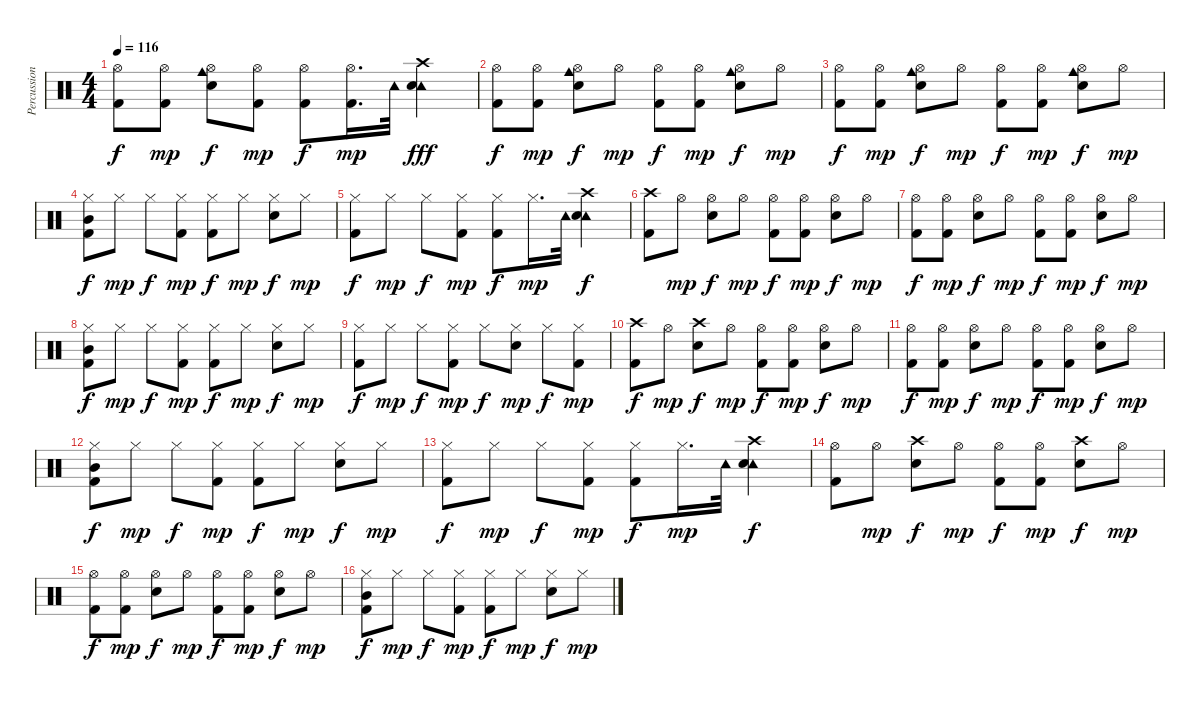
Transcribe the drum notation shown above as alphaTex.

\track ("Percussion (Peter)" "Percussion") {instrument percussion}
\staff {score}
\articulation defaults
\ts (4 4)
\tempo 116
\clef neutral
\ks c
("Hi-Hat (open)" "Kick (hit) 2").8{dy f} ("Hi-Hat (open)" "Kick (hit) 2").8{dy mp} ("Cowbell medium (hit)" "Hi-Hat (open)" "Snare (hit) 2").8{dy f} ("Hi-Hat (open)" "Kick (hit) 2").8{dy mp} ("Hi-Hat (open)" "Kick (hit) 2").8{dy f} ("Hi-Hat (open)" "Kick (hit) 2").16{d dy mp} "Tambourine (hit)".32 ("Crash high (hit)" "Tambourine (hit)" "Snare (hit) 2").4{dy fff} |
("Hi-Hat (open)" "Kick (hit) 2").8{dy f} ("Hi-Hat (open)" "Kick (hit) 2").8{dy mp} ("Cowbell medium (hit)" "Hi-Hat (open)" "Snare (hit) 2").8{dy f} "Hi-Hat (open)".8{dy mp} ("Hi-Hat (open)" "Kick (hit) 2").8{dy f} ("Hi-Hat (open)" "Kick (hit) 2").8{dy mp} ("Cowbell medium (hit)" "Hi-Hat (open)" "Snare (hit) 2").8{dy f} "Hi-Hat (open)".8{dy mp} |
("Hi-Hat (open)" "Kick (hit) 2").8{dy f} ("Hi-Hat (open)" "Kick (hit) 2").8{dy mp} ("Cowbell medium (hit)" "Hi-Hat (open)" "Snare (hit) 2").8{dy f} "Hi-Hat (open)".8{dy mp} ("Hi-Hat (open)" "Kick (hit) 2").8{dy f} ("Hi-Hat (open)" "Kick (hit) 2").8{dy mp} ("Cowbell medium (hit)" "Hi-Hat (open)" "Snare (hit) 2").8{dy f} "Hi-Hat (open)".8{dy mp} |
("Hi-Hat (closed)" "Mid Tom (hit)" "Kick (hit) 2").8{dy f} "Hi-Hat (closed)".8{dy mp} "Hi-Hat (closed)".8{dy f} ("Hi-Hat (closed)" "Kick (hit) 2").8{dy mp} ("Hi-Hat (closed)" "Kick (hit) 2").8{dy f} "Hi-Hat (closed)".8{dy mp} ("Hi-Hat (closed)" "Snare (hit) 2").8{dy f} "Hi-Hat (closed)".8{dy mp} |
("Hi-Hat (closed)" "Kick (hit) 2").8{dy f} "Hi-Hat (closed)".8{dy mp} "Hi-Hat (closed)".8{dy f} ("Hi-Hat (closed)" "Kick (hit) 2").8{dy mp} ("Hi-Hat (closed)" "Kick (hit) 2").8{dy f} "Hi-Hat (closed)".16{d dy mp} "Tambourine (hit)".32 ("Crash high (hit)" "Tambourine (hit)" "Snare (hit) 2").4{dy f} |
("Crash high (hit)" "Kick (hit) 2").8 "Hi-Hat (open)".8{dy mp} ("Hi-Hat (open)" "Snare (hit) 2").8{dy f} "Hi-Hat (open)".8{dy mp} ("Hi-Hat (open)" "Kick (hit) 2").8{dy f} ("Hi-Hat (open)" "Kick (hit) 2").8{dy mp} ("Hi-Hat (open)" "Snare (hit) 2").8{dy f} "Hi-Hat (open)".8{dy mp} |
("Hi-Hat (open)" "Kick (hit) 2").8{dy f} ("Hi-Hat (open)" "Kick (hit) 2").8{dy mp} ("Hi-Hat (open)" "Snare (hit) 2").8{dy f} "Hi-Hat (open)".8{dy mp} ("Hi-Hat (open)" "Kick (hit) 2").8{dy f} ("Hi-Hat (open)" "Kick (hit) 2").8{dy mp} ("Hi-Hat (open)" "Snare (hit) 2").8{dy f} "Hi-Hat (open)".8{dy mp} |
("Hi-Hat (closed)" "Mid Tom (hit)" "Kick (hit) 2").8{dy f} "Hi-Hat (closed)".8{dy mp} "Hi-Hat (closed)".8{dy f} ("Hi-Hat (closed)" "Kick (hit) 2").8{dy mp} ("Hi-Hat (closed)" "Kick (hit) 2").8{dy f} "Hi-Hat (closed)".8{dy mp} ("Hi-Hat (closed)" "Snare (hit) 2").8{dy f} "Hi-Hat (closed)".8{dy mp} |
("Hi-Hat (closed)" "Kick (hit) 2").8{dy f} "Hi-Hat (closed)".8{dy mp} "Hi-Hat (closed)".8{dy f} ("Hi-Hat (closed)" "Kick (hit) 2").8{dy mp} "Hi-Hat (closed)".8{dy f} ("Hi-Hat (closed)" "Snare (hit) 2").8{dy mp} "Hi-Hat (closed)".8{dy f} ("Hi-Hat (closed)" "Kick (hit) 2").8{dy mp} |
("Crash high (hit)" "Kick (hit) 2").8{dy f} "Hi-Hat (open)".8{dy mp} ("Crash high (hit)" "Snare (hit) 2").8{dy f} "Hi-Hat (open)".8{dy mp} ("Hi-Hat (open)" "Kick (hit) 2").8{dy f} ("Hi-Hat (open)" "Kick (hit) 2").8{dy mp} ("Hi-Hat (open)" "Snare (hit) 2").8{dy f} "Hi-Hat (open)".8{dy mp} |
("Hi-Hat (open)" "Kick (hit) 2").8{dy f} ("Hi-Hat (open)" "Kick (hit) 2").8{dy mp} ("Hi-Hat (open)" "Snare (hit) 2").8{dy f} "Hi-Hat (open)".8{dy mp} ("Hi-Hat (open)" "Kick (hit) 2").8{dy f} ("Hi-Hat (open)" "Kick (hit) 2").8{dy mp} ("Hi-Hat (open)" "Snare (hit) 2").8{dy f} "Hi-Hat (open)".8{dy mp} |
("Hi-Hat (closed)" "Mid Tom (hit)" "Kick (hit) 2").8{dy f} "Hi-Hat (closed)".8{dy mp} "Hi-Hat (closed)".8{dy f} ("Hi-Hat (closed)" "Kick (hit) 2").8{dy mp} ("Hi-Hat (closed)" "Kick (hit) 2").8{dy f} "Hi-Hat (closed)".8{dy mp} ("Hi-Hat (closed)" "Snare (hit) 2").8{dy f} "Hi-Hat (closed)".8{dy mp} |
("Hi-Hat (closed)" "Kick (hit) 2").8{dy f} "Hi-Hat (closed)".8{dy mp} "Hi-Hat (closed)".8{dy f} ("Hi-Hat (closed)" "Kick (hit) 2").8{dy mp} ("Hi-Hat (closed)" "Kick (hit) 2").8{dy f} "Hi-Hat (closed)".16{d dy mp} "Tambourine (hit)".32 ("Crash high (hit)" "Tambourine (hit)" "Snare (hit) 2").4{dy f} |
("Hi-Hat (open)" "Kick (hit) 2").8 "Hi-Hat (open)".8{dy mp} ("Crash high (hit)" "Snare (hit) 2").8{dy f} "Hi-Hat (open)".8{dy mp} ("Hi-Hat (open)" "Kick (hit) 2").8{dy f} ("Hi-Hat (open)" "Kick (hit) 2").8{dy mp} ("Crash high (hit)" "Snare (hit) 2").8{dy f} "Hi-Hat (open)".8{dy mp} |
("Hi-Hat (open)" "Kick (hit) 2").8{dy f} ("Hi-Hat (open)" "Kick (hit) 2").8{dy mp} ("Hi-Hat (open)" "Snare (hit) 2").8{dy f} "Hi-Hat (open)".8{dy mp} ("Hi-Hat (open)" "Kick (hit) 2").8{dy f} ("Hi-Hat (open)" "Kick (hit) 2").8{dy mp} ("Hi-Hat (open)" "Snare (hit) 2").8{dy f} "Hi-Hat (open)".8{dy mp} |
("Hi-Hat (closed)" "Mid Tom (hit)" "Kick (hit) 2").8{dy f} "Hi-Hat (closed)".8{dy mp} "Hi-Hat (closed)".8{dy f} ("Hi-Hat (closed)" "Kick (hit) 2").8{dy mp} ("Hi-Hat (closed)" "Kick (hit) 2").8{dy f} "Hi-Hat (closed)".8{dy mp} ("Hi-Hat (closed)" "Snare (hit) 2").8{dy f} "Hi-Hat (closed)".8{dy mp}
